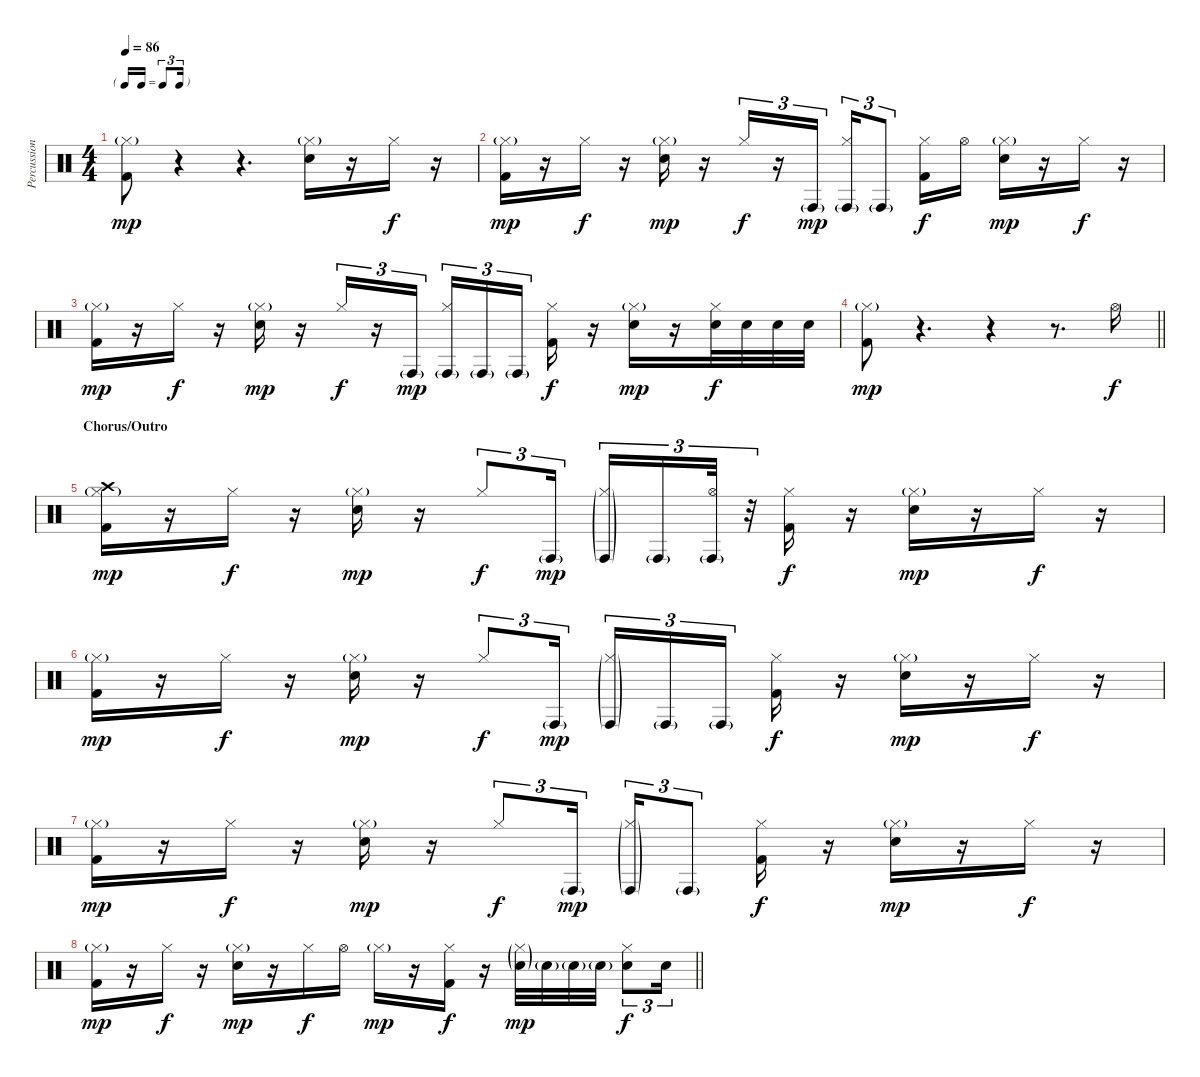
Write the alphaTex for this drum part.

\track ("Percussion" "Percussion") {instrument percussion}
\staff {score}
\articulation defaults
\ts (4 4)
\tf triplet16th
\tempo 86
\clef neutral
\ks c
("Hi-Hat (closed)"{g} "Kick (hit) 2").8{dy mp} r.4 r.4{d} ("Hi-Hat (closed)"{g} "Electric Snare (hit)").16 r.16 "Hi-Hat (closed)".16{dy f} r.16 |
("Hi-Hat (closed)"{g} "Kick (hit) 2").16{dy mp} r.16 "Hi-Hat (closed)".16{dy f} r.16 ("Hi-Hat (closed)"{g} "Electric Snare (hit)").16{dy mp} r.16 "Hi-Hat (closed)".16{tu (3 2) dy f} r.16{tu (3 2)} "Conga high (hit)"{g}.16{tu (3 2) dy mp} ("Conga high (hit)"{g} "Hi-Hat (closed)").16{tu (3 2)} "Conga high (hit)"{g}.8{tu (3 2)} ("Hi-Hat (closed)" "Kick (hit) 2").16{dy f} "Hi-Hat (open)".16 ("Hi-Hat (closed)"{g} "Electric Snare (hit)").16{dy mp} r.16 "Hi-Hat (closed)".16{dy f} r.16 |
("Hi-Hat (closed)"{g} "Kick (hit) 2").16{dy mp} r.16 "Hi-Hat (closed)".16{dy f} r.16 ("Hi-Hat (closed)"{g} "Electric Snare (hit)").16{dy mp} r.16 "Hi-Hat (closed)".16{tu (3 2) dy f} r.16{tu (3 2)} "Conga high (hit)"{g}.16{tu (3 2) dy mp} ("Conga high (hit)"{g} "Hi-Hat (closed)").16{tu (3 2)} "Conga high (hit)"{g}.16{tu (3 2)} "Conga high (hit)"{g}.16{tu (3 2) beam splitsecondary} ("Hi-Hat (closed)" "Kick (hit) 2").16{dy f} r.16 ("Hi-Hat (closed)"{g} "Electric Snare (hit)").16{dy mp} r.16 ("Hi-Hat (closed)" "Electric Snare (hit)").32{dy f} "Electric Snare (hit)".32 "Electric Snare (hit)".32 "Electric Snare (hit)".32 |
\barLineRight lightlight
("Hi-Hat (closed)"{g} "Kick (hit) 2").8{dy mp} r.4{d} r.4 r.8{d} "Hi-Hat (open)".16{dy f} |
\section ("" "Chorus/Outro")
("Crash high (hit)" "Hi-Hat (closed)"{g} "Kick (hit) 2").16{dy mp} r.16 "Hi-Hat (closed)".16{dy f} r.16 ("Hi-Hat (closed)"{g} "Electric Snare (hit)").16{dy mp} r.16 "Hi-Hat (closed)".8{tu (3 2) dy f} "Conga high (hit)"{g}.16{tu (3 2) dy mp} ("Conga high (hit)"{g} "Hi-Hat (closed)"{g}).16{tu (3 2)} "Conga high (hit)"{g}.16{tu (3 2)} ("Conga high (hit)"{g} "Hi-Hat (open)").32{tu (3 2)} r.32{tu (3 2)} ("Hi-Hat (closed)" "Kick (hit) 2").16{dy f} r.16 ("Hi-Hat (closed)"{g} "Electric Snare (hit)").16{dy mp} r.16 "Hi-Hat (closed)".16{dy f} r.16 |
("Hi-Hat (closed)"{g} "Kick (hit) 2").16{dy mp} r.16 "Hi-Hat (closed)".16{dy f} r.16 ("Hi-Hat (closed)"{g} "Electric Snare (hit)").16{dy mp} r.16 "Hi-Hat (closed)".8{tu (3 2) dy f} "Conga high (hit)"{g}.16{tu (3 2) dy mp} ("Conga high (hit)"{g} "Hi-Hat (closed)"{g}).16{tu (3 2)} "Conga high (hit)"{g}.16{tu (3 2)} "Conga high (hit)"{g}.16{tu (3 2) beam splitsecondary} ("Hi-Hat (closed)" "Kick (hit) 2").16{dy f} r.16 ("Hi-Hat (closed)"{g} "Electric Snare (hit)").16{dy mp} r.16 "Hi-Hat (closed)".16{dy f} r.16 |
("Hi-Hat (closed)"{g} "Kick (hit) 2").16{dy mp} r.16 "Hi-Hat (closed)".16{dy f} r.16 ("Hi-Hat (closed)"{g} "Electric Snare (hit)").16{dy mp} r.16 "Hi-Hat (closed)".8{tu (3 2) dy f} "Conga high (hit)"{g}.16{tu (3 2) dy mp} ("Conga high (hit)"{g} "Hi-Hat (closed)"{g}).16{tu (3 2)} "Conga high (hit)"{g}.8{tu (3 2)} ("Hi-Hat (closed)" "Kick (hit) 2").16{dy f} r.16 ("Hi-Hat (closed)"{g} "Electric Snare (hit)").16{dy mp} r.16 "Hi-Hat (closed)".16{dy f} r.16 |
\barLineRight lightlight
("Hi-Hat (closed)"{g} "Kick (hit) 2").16{dy mp} r.16 "Hi-Hat (closed)".16{dy f} r.16 ("Hi-Hat (closed)"{g} "Electric Snare (hit)").16{dy mp} r.16 "Hi-Hat (closed)".16{dy f} "Hi-Hat (open)".16 "Hi-Hat (closed)"{g}.16{dy mp} r.16 ("Hi-Hat (closed)" "Kick (hit) 2").16{dy f} r.16 ("Hi-Hat (closed)"{g} "Electric Snare (hit)"{g}).32{dy mp} "Electric Snare (hit)"{g}.32 "Electric Snare (hit)"{g}.32 "Electric Snare (hit)"{g}.32 ("Hi-Hat (closed)" "Electric Snare (hit)").8{tu (3 2) dy f} "Electric Snare (hit)".16{tu (3 2)}
